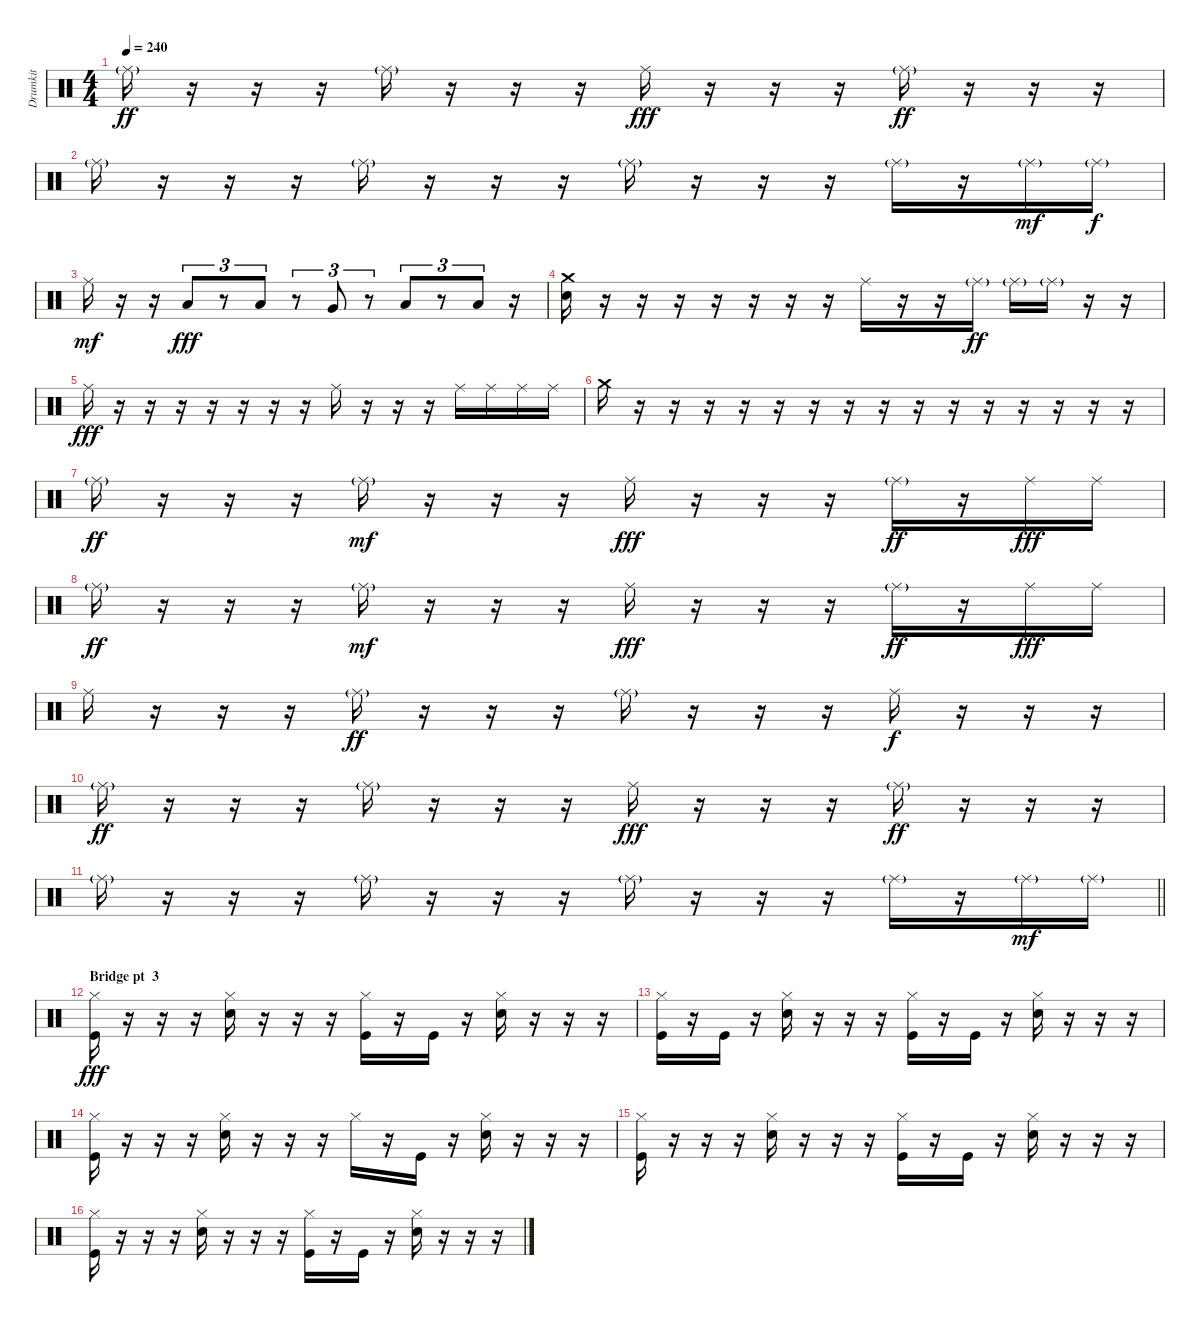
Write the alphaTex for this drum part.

\track ("Drumkit" "Drumkit") {instrument percussion}
\staff {score}
\articulation defaults
\ts (4 4)
\tempo 240
\clef neutral
\ks c "Ride (middle)"{g}.16{dy ff}
r.16 r.16 r.16 "Ride (middle)"{g}.16 r.16 r.16 r.16 "Ride (middle)".16{dy fff} r.16 r.16 r.16 "Ride (middle)"{g}.16{dy ff} r.16 r.16 r.16 |
"Ride (middle)"{g}.16 r.16 r.16 r.16 "Ride (middle)"{g}.16 r.16 r.16 r.16 "Ride (middle)"{g}.16 r.16 r.16 r.16 "Ride (middle)"{g}.16 r.16 "Ride (middle)"{g}.16{dy mf} "Ride (middle)"{g}.16{dy f} |
"Ride (middle)".16{dy mf} r.16 r.16 "Low Tom (hit)".8{tu (3 2) dy fff} r.8{tu (3 2)} "Low Tom (hit)".8{tu (3 2)} r.8{tu (3 2)} "Very Low Tom (hit)".8{tu (3 2)} r.8{tu (3 2)} "Low Floor Tom (hit)".8{tu (3 2)} r.8{tu (3 2)} "Low Floor Tom (hit)".8{tu (3 2)} r.16 |
("Crash medium (hit)" "Snare (hit) 2").16 r.16 r.16 r.16 r.16 r.16 r.16 r.16 "Ride (middle)".16 r.16 r.16 "Ride (middle)"{g}.16{dy ff} "Ride (middle)"{g}.16 "Ride (middle)"{g}.16 r.16 r.16 |
"Ride (middle)".16{dy fff} r.16 r.16 r.16 r.16 r.16 r.16 r.16 "Ride (middle)".16 r.16 r.16 r.16 "Ride (middle)".16 "Ride (middle)".16 "Ride (middle)".16 "Ride (middle)".16 |
"Crash medium (hit)".16 r.16 r.16 r.16 r.16 r.16 r.16 r.16 r.16 r.16 r.16 r.16 r.16 r.16 r.16 r.16 |
"Ride (middle)"{g}.16{dy ff} r.16 r.16 r.16 "Ride (middle)"{g}.16{dy mf} r.16 r.16 r.16 "Ride (middle)".16{dy fff} r.16 r.16 r.16 "Ride (middle)"{g}.16{dy ff} r.16 "Ride (middle)".16{dy fff} "Ride (middle)".16 |
"Ride (middle)"{g}.16{dy ff} r.16 r.16 r.16 "Ride (middle)"{g}.16{dy mf} r.16 r.16 r.16 "Ride (middle)".16{dy fff} r.16 r.16 r.16 "Ride (middle)"{g}.16{dy ff} r.16 "Ride (middle)".16{dy fff} "Ride (middle)".16 |
"Ride (middle)".16 r.16 r.16 r.16 "Ride (middle)"{g}.16{dy ff} r.16 r.16 r.16 "Ride (middle)"{g}.16 r.16 r.16 r.16 "Ride (middle)".16{dy f} r.16 r.16 r.16 |
"Ride (middle)"{g}.16{dy ff} r.16 r.16 r.16 "Ride (middle)"{g}.16 r.16 r.16 r.16 "Ride (middle)".16{dy fff} r.16 r.16 r.16 "Ride (middle)"{g}.16{dy ff} r.16 r.16 r.16 |
\barLineRight lightlight "Ride (middle)"{g}.16
r.16 r.16 r.16 "Ride (middle)"{g}.16 r.16 r.16 r.16 "Ride (middle)"{g}.16 r.16 r.16 r.16 "Ride (middle)"{g}.16 r.16 "Ride (middle)"{g}.16{dy mf} "Ride (middle)"{g}.16 |
\section ("" "Bridge pt  3")
("Hi-Hat (closed)" "Kick (hit)").16{dy fff} r.16 r.16 r.16 ("Hi-Hat (closed)" "Snare (hit) 2").16 r.16 r.16 r.16 ("Hi-Hat (closed)" "Kick (hit)").16 r.16 "Kick (hit)".16 r.16 ("Hi-Hat (closed)" "Snare (hit) 2").16 r.16 r.16 r.16 |
("Hi-Hat (closed)" "Kick (hit)").16 r.16 "Kick (hit)".16 r.16 ("Hi-Hat (closed)" "Snare (hit) 2").16 r.16 r.16 r.16 ("Hi-Hat (closed)" "Kick (hit)").16 r.16 "Kick (hit)".16 r.16 ("Hi-Hat (closed)" "Snare (hit) 2").16 r.16 r.16 r.16 |
("Hi-Hat (closed)" "Kick (hit)").16 r.16 r.16 r.16 ("Hi-Hat (closed)" "Snare (hit) 2").16 r.16 r.16 r.16 "Hi-Hat (closed)".16 r.16 "Kick (hit)".16 r.16 ("Hi-Hat (closed)" "Snare (hit) 2").16 r.16 r.16 r.16 |
("Hi-Hat (closed)" "Kick (hit)").16 r.16 r.16 r.16 ("Hi-Hat (closed)" "Snare (hit) 2").16 r.16 r.16 r.16 ("Hi-Hat (closed)" "Kick (hit)").16 r.16 "Kick (hit)".16 r.16 ("Hi-Hat (closed)" "Snare (hit) 2").16 r.16 r.16 r.16 |
("Hi-Hat (closed)" "Kick (hit)").16 r.16 r.16 r.16 ("Hi-Hat (closed)" "Snare (hit) 2").16 r.16 r.16 r.16 ("Hi-Hat (closed)" "Kick (hit)").16 r.16 "Kick (hit)".16 r.16 ("Hi-Hat (closed)" "Snare (hit) 2").16 r.16 r.16 r.16
